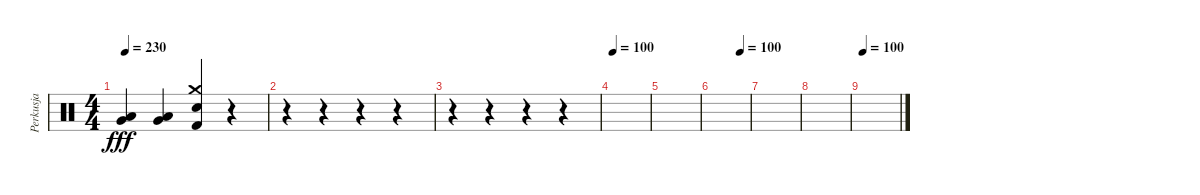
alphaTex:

\track ("Perkusja" "Perkusja") {instrument percussion}
\staff {score}
\articulation defaults
\ts (4 4)
\tempo 230
\clef neutral
\ks c
("Low Tom (hit)" "Very Low Tom (hit)").4{dy fff} ("Very Low Tom (hit)" "Low Floor Tom (hit)").4 ("Snare (hit) 2" "Crash medium (hit)" "Kick (hit) 2").4 r.4 |
r.4 r.4 r.4 r.4 |
r.4 r.4 r.4 r.4 |
\tempo 100
|
|
\tempo (100 0.75)
|
|
|
\tempo 100
